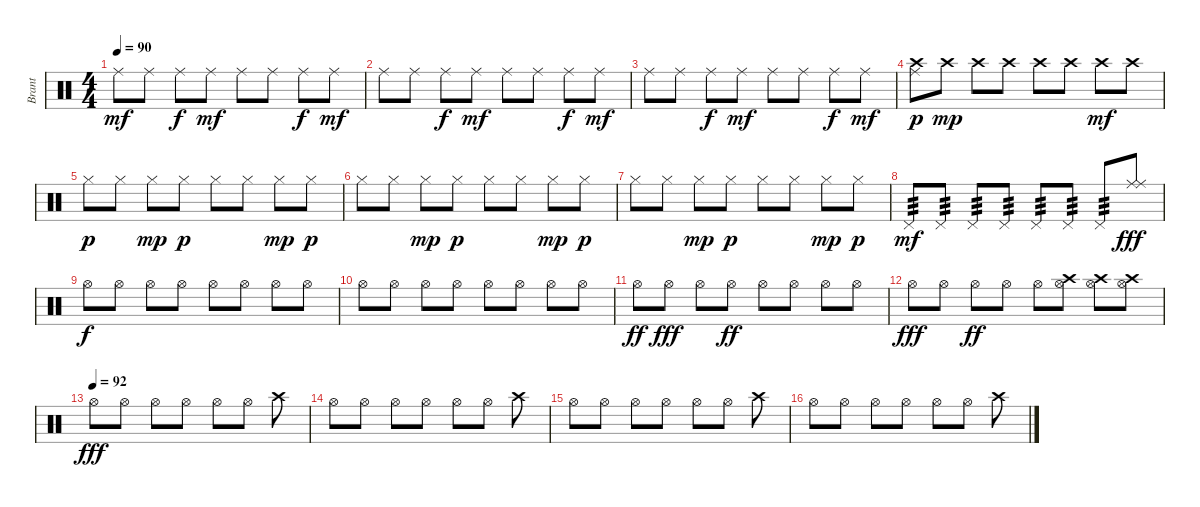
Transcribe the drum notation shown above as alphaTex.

\track ("Brant" "Brant") {instrument percussion}
\staff {score}
\articulation defaults
\ts (4 4)
\tempo 90
\clef neutral
\ks c "Ride (middle)".8{dy mf} "Ride (middle)".8 "Ride (middle)".8{dy f} "Ride (middle)".8{dy mf} "Ride (middle)".8 "Ride (middle)".8 "Ride (middle)".8{dy f} "Ride (middle)".8{dy mf}
|
"Ride (middle)".8 "Ride (middle)".8 "Ride (middle)".8{dy f} "Ride (middle)".8{dy mf} "Ride (middle)".8 "Ride (middle)".8 "Ride (middle)".8{dy f} "Ride (middle)".8{dy mf} |
"Ride (middle)".8 "Ride (middle)".8 "Ride (middle)".8{dy f} "Ride (middle)".8{dy mf} "Ride (middle)".8 "Ride (middle)".8 "Ride (middle)".8{dy f} "Ride (middle)".8{dy mf} |
("Ride (middle)" "Crash high (hit)").8{dy p} "Crash high (hit)".8{dy mp} "Crash high (hit)".8 "Crash high (hit)".8 "Crash high (hit)".8 "Crash high (hit)".8 "Crash high (hit)".8{dy mf} "Crash high (hit)".8 |
"Hi-Hat (closed)".8{dy p} "Hi-Hat (closed)".8 "Hi-Hat (closed)".8{dy mp} "Hi-Hat (closed)".8{dy p} "Hi-Hat (closed)".8 "Hi-Hat (closed)".8 "Hi-Hat (closed)".8{dy mp} "Hi-Hat (closed)".8{dy p} |
"Hi-Hat (closed)".8 "Hi-Hat (closed)".8 "Hi-Hat (closed)".8{dy mp} "Hi-Hat (closed)".8{dy p} "Hi-Hat (closed)".8 "Hi-Hat (closed)".8 "Hi-Hat (closed)".8{dy mp} "Hi-Hat (closed)".8{dy p} |
"Hi-Hat (closed)".8 "Hi-Hat (closed)".8 "Hi-Hat (closed)".8{dy mp} "Hi-Hat (closed)".8{dy p} "Hi-Hat (closed)".8 "Hi-Hat (closed)".8 "Hi-Hat (closed)".8{dy mp} "Hi-Hat (closed)".8{dy p} |
"Pedal Hi-Hat (hit)".8{tp 3 dy mf} "Pedal Hi-Hat (hit)".8{tp 3} "Pedal Hi-Hat (hit)".8{tp 3} "Pedal Hi-Hat (hit)".8{tp 3} "Pedal Hi-Hat (hit)".8{tp 3} "Pedal Hi-Hat (hit)".8{tp 3} "Pedal Hi-Hat (hit)".8{tp 3} ("Ride (middle)" "Ride (middle)").8{dy fff} |
"Hi-Hat (open)".8{dy f} "Hi-Hat (open)".8 "Hi-Hat (open)".8 "Hi-Hat (open)".8 "Hi-Hat (open)".8 "Hi-Hat (open)".8 "Hi-Hat (open)".8 "Hi-Hat (open)".8 |
"Hi-Hat (open)".8 "Hi-Hat (open)".8 "Hi-Hat (open)".8 "Hi-Hat (open)".8 "Hi-Hat (open)".8 "Hi-Hat (open)".8 "Hi-Hat (open)".8 "Hi-Hat (open)".8 |
"Hi-Hat (open)".8{dy ff} "Hi-Hat (open)".8{dy fff} "Hi-Hat (open)".8 "Hi-Hat (open)".8{dy ff} "Hi-Hat (open)".8 "Hi-Hat (open)".8 "Hi-Hat (open)".8 "Hi-Hat (open)".8 |
"Hi-Hat (open)".8{dy fff} "Hi-Hat (open)".8 "Hi-Hat (open)".8{dy ff} "Hi-Hat (open)".8 "Hi-Hat (open)".8 ("Crash high (hit)" "Hi-Hat (open)").8 ("Crash high (hit)" "Hi-Hat (open)").8 ("Crash high (hit)" "Hi-Hat (open)").8 |
\tempo (92)
"Hi-Hat (open)".8{dy fff} "Hi-Hat (open)".8 "Hi-Hat (open)".8 "Hi-Hat (open)".8 "Hi-Hat (open)".8 "Hi-Hat (open)".8 "Crash high (hit)".8 |
"Hi-Hat (open)".8 "Hi-Hat (open)".8 "Hi-Hat (open)".8 "Hi-Hat (open)".8 "Hi-Hat (open)".8 "Hi-Hat (open)".8 "Crash high (hit)".8 |
"Hi-Hat (open)".8 "Hi-Hat (open)".8 "Hi-Hat (open)".8 "Hi-Hat (open)".8 "Hi-Hat (open)".8 "Hi-Hat (open)".8 "Crash high (hit)".8 |
"Hi-Hat (open)".8 "Hi-Hat (open)".8 "Hi-Hat (open)".8 "Hi-Hat (open)".8 "Hi-Hat (open)".8 "Hi-Hat (open)".8 "Crash high (hit)".8
